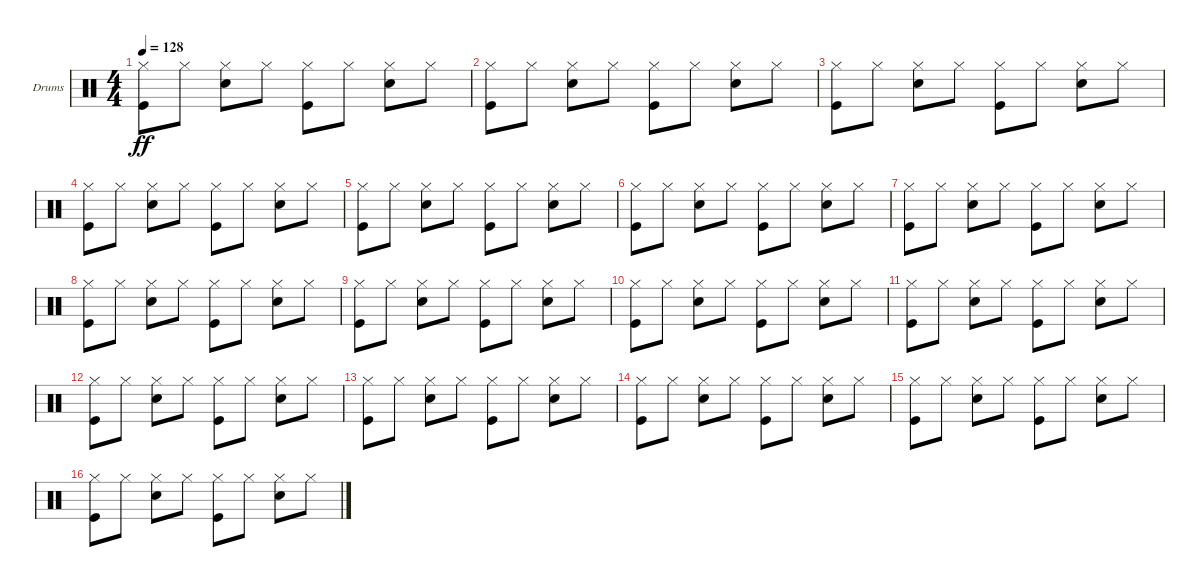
\defaultSystemsLayout 4
\bracketExtendMode groupsimilarinstruments
\firstSystemTrackNameOrientation horizontal
\otherSystemsTrackNameOrientation horizontal
\track ("Drums" "Drums") {instrument percussion}
\staff {score}
\articulation defaults
\ts (4 4)
\tempo 128
\clef neutral
\ks c
("Kick (hit)" "Hi-Hat (closed)").8{dy ff} "Hi-Hat (closed)".8 ("Snare (hit) 2" "Hi-Hat (closed)").8 "Hi-Hat (closed)".8 ("Hi-Hat (closed)" "Kick (hit)").8 "Hi-Hat (closed)".8 ("Snare (hit) 2" "Hi-Hat (closed)").8 "Hi-Hat (closed)".8 |
("Kick (hit)" "Hi-Hat (closed)").8 "Hi-Hat (closed)".8 ("Snare (hit) 2" "Hi-Hat (closed)").8 "Hi-Hat (closed)".8 ("Kick (hit)" "Hi-Hat (closed)").8 "Hi-Hat (closed)".8 ("Snare (hit) 2" "Hi-Hat (closed)").8 "Hi-Hat (closed)".8 |
("Kick (hit)" "Hi-Hat (closed)").8 "Hi-Hat (closed)".8 ("Snare (hit) 2" "Hi-Hat (closed)").8 "Hi-Hat (closed)".8 ("Hi-Hat (closed)" "Kick (hit)").8 "Hi-Hat (closed)".8 ("Snare (hit) 2" "Hi-Hat (closed)").8 "Hi-Hat (closed)".8 |
("Kick (hit)" "Hi-Hat (closed)").8 "Hi-Hat (closed)".8 ("Snare (hit) 2" "Hi-Hat (closed)").8 "Hi-Hat (closed)".8 ("Kick (hit)" "Hi-Hat (closed)").8 "Hi-Hat (closed)".8 ("Snare (hit) 2" "Hi-Hat (closed)").8 "Hi-Hat (closed)".8 |
("Kick (hit)" "Hi-Hat (closed)").8 "Hi-Hat (closed)".8 ("Snare (hit) 2" "Hi-Hat (closed)").8 "Hi-Hat (closed)".8 ("Hi-Hat (closed)" "Kick (hit)").8 "Hi-Hat (closed)".8 ("Snare (hit) 2" "Hi-Hat (closed)").8 "Hi-Hat (closed)".8 |
("Kick (hit)" "Hi-Hat (closed)").8 "Hi-Hat (closed)".8 ("Snare (hit) 2" "Hi-Hat (closed)").8 "Hi-Hat (closed)".8 ("Kick (hit)" "Hi-Hat (closed)").8 "Hi-Hat (closed)".8 ("Snare (hit) 2" "Hi-Hat (closed)").8 "Hi-Hat (closed)".8 |
("Kick (hit)" "Hi-Hat (closed)").8 "Hi-Hat (closed)".8 ("Snare (hit) 2" "Hi-Hat (closed)").8 "Hi-Hat (closed)".8 ("Hi-Hat (closed)" "Kick (hit)").8 "Hi-Hat (closed)".8 ("Snare (hit) 2" "Hi-Hat (closed)").8 "Hi-Hat (closed)".8 |
("Kick (hit)" "Hi-Hat (closed)").8 "Hi-Hat (closed)".8 ("Snare (hit) 2" "Hi-Hat (closed)").8 "Hi-Hat (closed)".8 ("Kick (hit)" "Hi-Hat (closed)").8 "Hi-Hat (closed)".8 ("Snare (hit) 2" "Hi-Hat (closed)").8 "Hi-Hat (closed)".8 |
("Kick (hit)" "Hi-Hat (closed)").8 "Hi-Hat (closed)".8 ("Snare (hit) 2" "Hi-Hat (closed)").8 "Hi-Hat (closed)".8 ("Hi-Hat (closed)" "Kick (hit)").8 "Hi-Hat (closed)".8 ("Snare (hit) 2" "Hi-Hat (closed)").8 "Hi-Hat (closed)".8 |
("Kick (hit)" "Hi-Hat (closed)").8 "Hi-Hat (closed)".8 ("Snare (hit) 2" "Hi-Hat (closed)").8 "Hi-Hat (closed)".8 ("Kick (hit)" "Hi-Hat (closed)").8 "Hi-Hat (closed)".8 ("Snare (hit) 2" "Hi-Hat (closed)").8 "Hi-Hat (closed)".8 |
("Kick (hit)" "Hi-Hat (closed)").8 "Hi-Hat (closed)".8 ("Snare (hit) 2" "Hi-Hat (closed)").8 "Hi-Hat (closed)".8 ("Hi-Hat (closed)" "Kick (hit)").8 "Hi-Hat (closed)".8 ("Snare (hit) 2" "Hi-Hat (closed)").8 "Hi-Hat (closed)".8 |
("Kick (hit)" "Hi-Hat (closed)").8 "Hi-Hat (closed)".8 ("Snare (hit) 2" "Hi-Hat (closed)").8 "Hi-Hat (closed)".8 ("Kick (hit)" "Hi-Hat (closed)").8 "Hi-Hat (closed)".8 ("Snare (hit) 2" "Hi-Hat (closed)").8 "Hi-Hat (closed)".8 |
("Kick (hit)" "Hi-Hat (closed)").8 "Hi-Hat (closed)".8 ("Snare (hit) 2" "Hi-Hat (closed)").8 "Hi-Hat (closed)".8 ("Hi-Hat (closed)" "Kick (hit)").8 "Hi-Hat (closed)".8 ("Snare (hit) 2" "Hi-Hat (closed)").8 "Hi-Hat (closed)".8 |
("Kick (hit)" "Hi-Hat (closed)").8 "Hi-Hat (closed)".8 ("Snare (hit) 2" "Hi-Hat (closed)").8 "Hi-Hat (closed)".8 ("Kick (hit)" "Hi-Hat (closed)").8 "Hi-Hat (closed)".8 ("Snare (hit) 2" "Hi-Hat (closed)").8 "Hi-Hat (closed)".8 |
("Kick (hit)" "Hi-Hat (closed)").8 "Hi-Hat (closed)".8 ("Snare (hit) 2" "Hi-Hat (closed)").8 "Hi-Hat (closed)".8 ("Hi-Hat (closed)" "Kick (hit)").8 "Hi-Hat (closed)".8 ("Snare (hit) 2" "Hi-Hat (closed)").8 "Hi-Hat (closed)".8 |
("Kick (hit)" "Hi-Hat (closed)").8 "Hi-Hat (closed)".8 ("Snare (hit) 2" "Hi-Hat (closed)").8 "Hi-Hat (closed)".8 ("Kick (hit)" "Hi-Hat (closed)").8 "Hi-Hat (closed)".8 ("Snare (hit) 2" "Hi-Hat (closed)").8 "Hi-Hat (closed)".8
